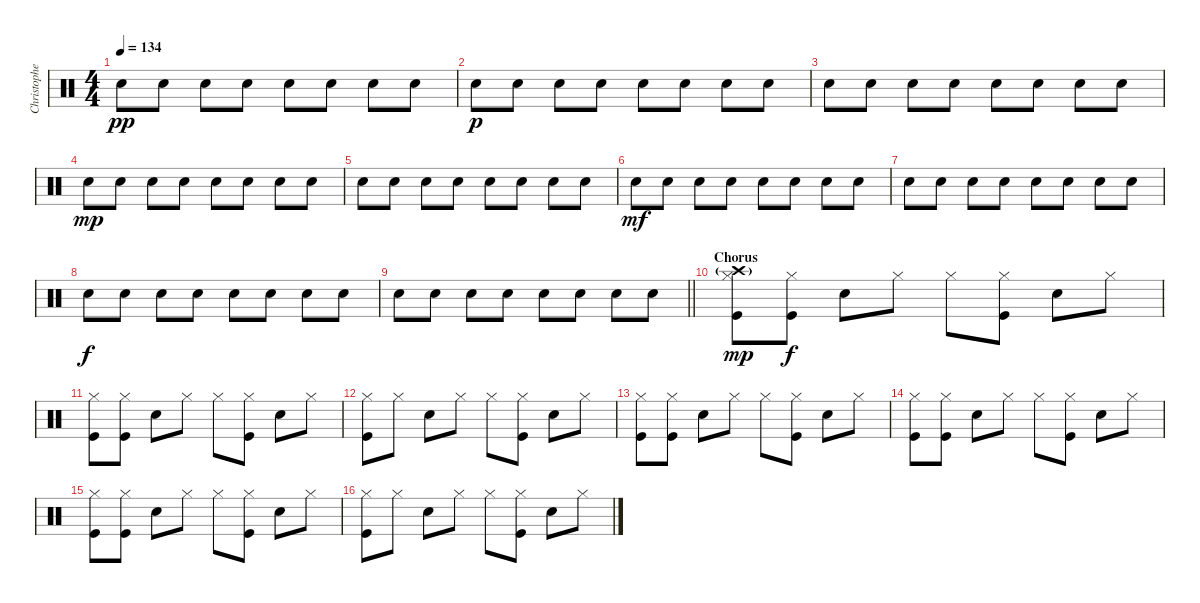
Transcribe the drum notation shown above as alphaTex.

\track ("Christopher - Drums" "Christophe") {instrument percussion}
\staff {score}
\articulation defaults
\ts (4 4)
\tempo 134
\clef neutral
\ks c "Snare (hit) 2".8{dy pp} "Snare (hit) 2".8 "Snare (hit) 2".8 "Snare (hit) 2".8 "Snare (hit) 2".8 "Snare (hit) 2".8 "Snare (hit) 2".8 "Snare (hit) 2".8
|
"Snare (hit) 2".8{dy p} "Snare (hit) 2".8 "Snare (hit) 2".8 "Snare (hit) 2".8 "Snare (hit) 2".8 "Snare (hit) 2".8 "Snare (hit) 2".8 "Snare (hit) 2".8 |
"Snare (hit) 2".8 "Snare (hit) 2".8 "Snare (hit) 2".8 "Snare (hit) 2".8 "Snare (hit) 2".8 "Snare (hit) 2".8 "Snare (hit) 2".8 "Snare (hit) 2".8 |
"Snare (hit) 2".8{dy mp} "Snare (hit) 2".8 "Snare (hit) 2".8 "Snare (hit) 2".8 "Snare (hit) 2".8 "Snare (hit) 2".8 "Snare (hit) 2".8 "Snare (hit) 2".8 |
"Snare (hit) 2".8 "Snare (hit) 2".8 "Snare (hit) 2".8 "Snare (hit) 2".8 "Snare (hit) 2".8 "Snare (hit) 2".8 "Snare (hit) 2".8 "Snare (hit) 2".8 |
"Snare (hit) 2".8{dy mf} "Snare (hit) 2".8 "Snare (hit) 2".8 "Snare (hit) 2".8 "Snare (hit) 2".8 "Snare (hit) 2".8 "Snare (hit) 2".8 "Snare (hit) 2".8 |
"Snare (hit) 2".8 "Snare (hit) 2".8 "Snare (hit) 2".8 "Snare (hit) 2".8 "Snare (hit) 2".8 "Snare (hit) 2".8 "Snare (hit) 2".8 "Snare (hit) 2".8 |
"Snare (hit) 2".8{dy f} "Snare (hit) 2".8 "Snare (hit) 2".8 "Snare (hit) 2".8 "Snare (hit) 2".8 "Snare (hit) 2".8 "Snare (hit) 2".8 "Snare (hit) 2".8 |
\barLineRight lightlight "Snare (hit) 2".8 "Snare (hit) 2".8 "Snare (hit) 2".8 "Snare (hit) 2".8 "Snare (hit) 2".8 "Snare (hit) 2".8 "Snare (hit) 2".8 "Snare (hit) 2".8
|
\section ("" "Chorus")
("Crash high (hit)"{g} "Hi-Hat (closed)" "Kick (hit)").8{dy mp} ("Hi-Hat (closed)" "Kick (hit)").8{dy f} "Snare (hit) 2".8 "Hi-Hat (closed)".8 "Hi-Hat (closed)".8 ("Hi-Hat (closed)" "Kick (hit)").8 "Snare (hit) 2".8 "Hi-Hat (closed)".8 |
("Hi-Hat (closed)" "Kick (hit)").8 ("Hi-Hat (closed)" "Kick (hit)").8 "Snare (hit) 2".8 "Hi-Hat (closed)".8 "Hi-Hat (closed)".8 ("Hi-Hat (closed)" "Kick (hit)").8 "Snare (hit) 2".8 "Hi-Hat (closed)".8 |
("Hi-Hat (closed)" "Kick (hit)").8 "Hi-Hat (closed)".8 "Snare (hit) 2".8 "Hi-Hat (closed)".8 "Hi-Hat (closed)".8 ("Hi-Hat (closed)" "Kick (hit)").8 "Snare (hit) 2".8 "Hi-Hat (closed)".8 |
("Hi-Hat (closed)" "Kick (hit)").8 ("Hi-Hat (closed)" "Kick (hit)").8 "Snare (hit) 2".8 "Hi-Hat (closed)".8 "Hi-Hat (closed)".8 ("Hi-Hat (closed)" "Kick (hit)").8 "Snare (hit) 2".8 "Hi-Hat (closed)".8 |
("Hi-Hat (closed)" "Kick (hit)").8 ("Hi-Hat (closed)" "Kick (hit)").8 "Snare (hit) 2".8 "Hi-Hat (closed)".8 "Hi-Hat (closed)".8 ("Hi-Hat (closed)" "Kick (hit)").8 "Snare (hit) 2".8 "Hi-Hat (closed)".8 |
("Hi-Hat (closed)" "Kick (hit)").8 ("Hi-Hat (closed)" "Kick (hit)").8 "Snare (hit) 2".8 "Hi-Hat (closed)".8 "Hi-Hat (closed)".8 ("Hi-Hat (closed)" "Kick (hit)").8 "Snare (hit) 2".8 "Hi-Hat (closed)".8 |
("Hi-Hat (closed)" "Kick (hit)").8 "Hi-Hat (closed)".8 "Snare (hit) 2".8 "Hi-Hat (closed)".8 "Hi-Hat (closed)".8 ("Hi-Hat (closed)" "Kick (hit)").8 "Snare (hit) 2".8 "Hi-Hat (closed)".8
